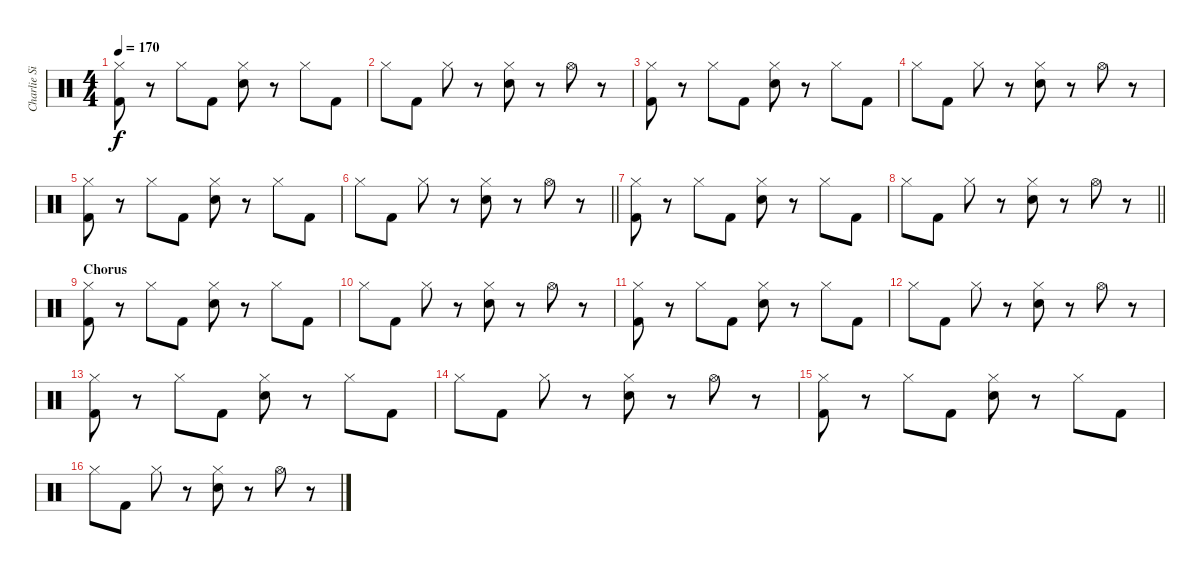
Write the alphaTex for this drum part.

\track ("Charlie Simpson (Drums)" "Charlie Si") {instrument percussion}
\staff {score}
\articulation defaults
\ts (4 4)
\tempo 170
\clef neutral
\ks c
("Hi-Hat (closed)" "Kick (hit) 2").8{dy f} r.8 "Hi-Hat (closed)".8 "Kick (hit) 2".8 ("Hi-Hat (closed)" "Snare (hit) 2").8 r.8 "Hi-Hat (closed)".8 "Kick (hit) 2".8 |
"Hi-Hat (closed)".8 "Kick (hit) 2".8 "Hi-Hat (closed)".8 r.8 ("Hi-Hat (closed)" "Snare (hit) 2").8 r.8 "Hi-Hat (open)".8 r.8 |
("Hi-Hat (closed)" "Kick (hit) 2").8 r.8 "Hi-Hat (closed)".8 "Kick (hit) 2".8 ("Hi-Hat (closed)" "Snare (hit) 2").8 r.8 "Hi-Hat (closed)".8 "Kick (hit) 2".8 |
"Hi-Hat (closed)".8 "Kick (hit) 2".8 "Hi-Hat (closed)".8 r.8 ("Hi-Hat (closed)" "Snare (hit) 2").8 r.8 "Hi-Hat (open)".8 r.8 |
("Hi-Hat (closed)" "Kick (hit) 2").8 r.8 "Hi-Hat (closed)".8 "Kick (hit) 2".8 ("Hi-Hat (closed)" "Snare (hit) 2").8 r.8 "Hi-Hat (closed)".8 "Kick (hit) 2".8 |
\barLineRight lightlight "Hi-Hat (closed)".8 "Kick (hit) 2".8 "Hi-Hat (closed)".8
r.8 ("Hi-Hat (closed)" "Snare (hit) 2").8 r.8 "Hi-Hat (open)".8 r.8 |
("Hi-Hat (closed)" "Kick (hit) 2").8 r.8 "Hi-Hat (closed)".8 "Kick (hit) 2".8 ("Hi-Hat (closed)" "Snare (hit) 2").8 r.8 "Hi-Hat (closed)".8 "Kick (hit) 2".8 |
\barLineRight lightlight "Hi-Hat (closed)".8 "Kick (hit) 2".8 "Hi-Hat (closed)".8
r.8 ("Hi-Hat (closed)" "Snare (hit) 2").8 r.8 "Hi-Hat (open)".8 r.8 |
\section ("" "Chorus")
("Hi-Hat (closed)" "Kick (hit) 2").8 r.8 "Hi-Hat (closed)".8 "Kick (hit) 2".8 ("Hi-Hat (closed)" "Snare (hit) 2").8 r.8 "Hi-Hat (closed)".8 "Kick (hit) 2".8 |
"Hi-Hat (closed)".8 "Kick (hit) 2".8 "Hi-Hat (closed)".8 r.8 ("Hi-Hat (closed)" "Snare (hit) 2").8 r.8 "Hi-Hat (open)".8 r.8 |
("Hi-Hat (closed)" "Kick (hit) 2").8 r.8 "Hi-Hat (closed)".8 "Kick (hit) 2".8 ("Hi-Hat (closed)" "Snare (hit) 2").8 r.8 "Hi-Hat (closed)".8 "Kick (hit) 2".8 |
"Hi-Hat (closed)".8 "Kick (hit) 2".8 "Hi-Hat (closed)".8 r.8 ("Hi-Hat (closed)" "Snare (hit) 2").8 r.8 "Hi-Hat (open)".8 r.8 |
("Hi-Hat (closed)" "Kick (hit) 2").8 r.8 "Hi-Hat (closed)".8 "Kick (hit) 2".8 ("Hi-Hat (closed)" "Snare (hit) 2").8 r.8 "Hi-Hat (closed)".8 "Kick (hit) 2".8 |
"Hi-Hat (closed)".8 "Kick (hit) 2".8 "Hi-Hat (closed)".8 r.8 ("Hi-Hat (closed)" "Snare (hit) 2").8 r.8 "Hi-Hat (open)".8 r.8 |
("Hi-Hat (closed)" "Kick (hit) 2").8 r.8 "Hi-Hat (closed)".8 "Kick (hit) 2".8 ("Hi-Hat (closed)" "Snare (hit) 2").8 r.8 "Hi-Hat (closed)".8 "Kick (hit) 2".8 |
"Hi-Hat (closed)".8 "Kick (hit) 2".8 "Hi-Hat (closed)".8 r.8 ("Hi-Hat (closed)" "Snare (hit) 2").8 r.8 "Hi-Hat (open)".8 r.8
